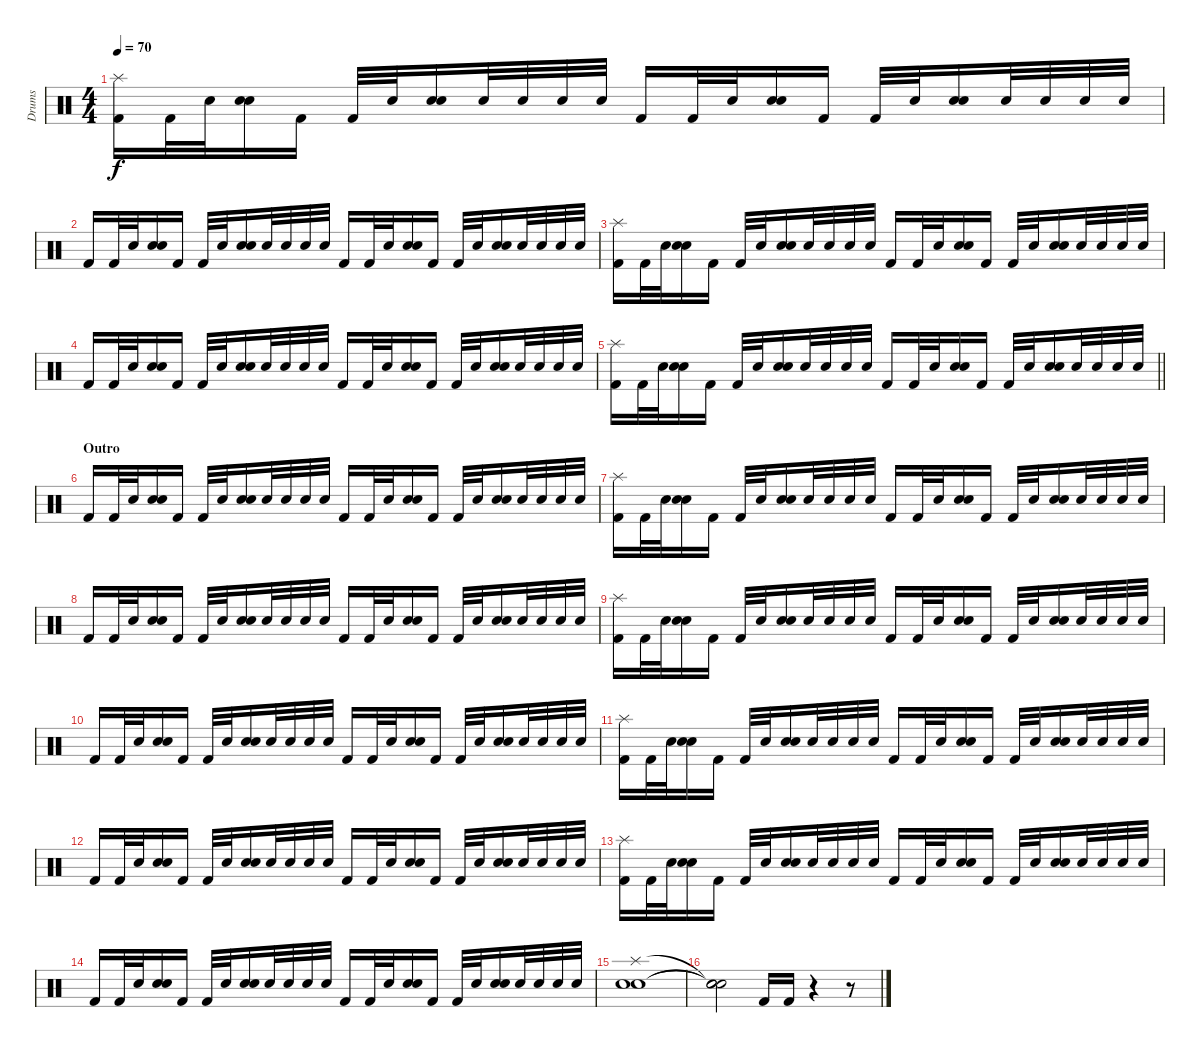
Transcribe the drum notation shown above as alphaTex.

\track ("Drums" "Drums") {instrument percussion}
\staff {score}
\articulation defaults
\ts (4 4)
\tempo 70
\clef neutral
\ks c
("Splash (hit)" "Kick (hit) 2").16{dy f} "Kick (hit) 2".32 "Snare (hit) 2".32 ("Snare (hit) 2" "Electric Snare (hit)").16 "Kick (hit) 2".16 "Kick (hit) 2".32 "Snare (hit) 2".32 ("Snare (hit) 2" "Electric Snare (hit)").16 "Snare (hit) 2".32 "Snare (hit) 2".32 "Snare (hit) 2".32 "Snare (hit) 2".32 "Kick (hit) 2".16 "Kick (hit) 2".32 "Snare (hit) 2".32 ("Snare (hit) 2" "Electric Snare (hit)").16 "Kick (hit) 2".16 "Kick (hit) 2".32 "Snare (hit) 2".32 ("Snare (hit) 2" "Electric Snare (hit)").16 "Snare (hit) 2".32 "Snare (hit) 2".32 "Snare (hit) 2".32 "Snare (hit) 2".32 |
"Kick (hit) 2".16 "Kick (hit) 2".32 "Snare (hit) 2".32 ("Snare (hit) 2" "Electric Snare (hit)").16 "Kick (hit) 2".16 "Kick (hit) 2".32 "Snare (hit) 2".32 ("Snare (hit) 2" "Electric Snare (hit)").16 "Snare (hit) 2".32 "Snare (hit) 2".32 "Snare (hit) 2".32 "Snare (hit) 2".32 "Kick (hit) 2".16 "Kick (hit) 2".32 "Snare (hit) 2".32 ("Snare (hit) 2" "Electric Snare (hit)").16 "Kick (hit) 2".16 "Kick (hit) 2".32 "Snare (hit) 2".32 ("Snare (hit) 2" "Electric Snare (hit)").16 "Snare (hit) 2".32 "Snare (hit) 2".32 "Snare (hit) 2".32 "Snare (hit) 2".32 |
("Splash (hit)" "Kick (hit) 2").16 "Kick (hit) 2".32 "Snare (hit) 2".32 ("Snare (hit) 2" "Electric Snare (hit)").16 "Kick (hit) 2".16 "Kick (hit) 2".32 "Snare (hit) 2".32 ("Snare (hit) 2" "Electric Snare (hit)").16 "Snare (hit) 2".32 "Snare (hit) 2".32 "Snare (hit) 2".32 "Snare (hit) 2".32 "Kick (hit) 2".16 "Kick (hit) 2".32 "Snare (hit) 2".32 ("Snare (hit) 2" "Electric Snare (hit)").16 "Kick (hit) 2".16 "Kick (hit) 2".32 "Snare (hit) 2".32 ("Snare (hit) 2" "Electric Snare (hit)").16 "Snare (hit) 2".32 "Snare (hit) 2".32 "Snare (hit) 2".32 "Snare (hit) 2".32 |
"Kick (hit) 2".16 "Kick (hit) 2".32 "Snare (hit) 2".32 ("Snare (hit) 2" "Electric Snare (hit)").16 "Kick (hit) 2".16 "Kick (hit) 2".32 "Snare (hit) 2".32 ("Snare (hit) 2" "Electric Snare (hit)").16 "Snare (hit) 2".32 "Snare (hit) 2".32 "Snare (hit) 2".32 "Snare (hit) 2".32 "Kick (hit) 2".16 "Kick (hit) 2".32 "Snare (hit) 2".32 ("Snare (hit) 2" "Electric Snare (hit)").16 "Kick (hit) 2".16 "Kick (hit) 2".32 "Snare (hit) 2".32 ("Snare (hit) 2" "Electric Snare (hit)").16 "Snare (hit) 2".32 "Snare (hit) 2".32 "Snare (hit) 2".32 "Snare (hit) 2".32 |
\barLineRight lightlight
("Splash (hit)" "Kick (hit) 2").16 "Kick (hit) 2".32 "Snare (hit) 2".32 ("Snare (hit) 2" "Electric Snare (hit)").16 "Kick (hit) 2".16 "Kick (hit) 2".32 "Snare (hit) 2".32 ("Snare (hit) 2" "Electric Snare (hit)").16 "Snare (hit) 2".32 "Snare (hit) 2".32 "Snare (hit) 2".32 "Snare (hit) 2".32 "Kick (hit) 2".16 "Kick (hit) 2".32 "Snare (hit) 2".32 ("Snare (hit) 2" "Electric Snare (hit)").16 "Kick (hit) 2".16 "Kick (hit) 2".32 "Snare (hit) 2".32 ("Snare (hit) 2" "Electric Snare (hit)").16 "Snare (hit) 2".32 "Snare (hit) 2".32 "Snare (hit) 2".32 "Snare (hit) 2".32 |
\section ("" "Outro")
"Kick (hit) 2".16 "Kick (hit) 2".32 "Snare (hit) 2".32 ("Snare (hit) 2" "Electric Snare (hit)").16 "Kick (hit) 2".16 "Kick (hit) 2".32 "Snare (hit) 2".32 ("Snare (hit) 2" "Electric Snare (hit)").16 "Snare (hit) 2".32 "Snare (hit) 2".32 "Snare (hit) 2".32 "Snare (hit) 2".32 "Kick (hit) 2".16 "Kick (hit) 2".32 "Snare (hit) 2".32 ("Snare (hit) 2" "Electric Snare (hit)").16 "Kick (hit) 2".16 "Kick (hit) 2".32 "Snare (hit) 2".32 ("Snare (hit) 2" "Electric Snare (hit)").16 "Snare (hit) 2".32 "Snare (hit) 2".32 "Snare (hit) 2".32 "Snare (hit) 2".32 |
("Splash (hit)" "Kick (hit) 2").16 "Kick (hit) 2".32 "Snare (hit) 2".32 ("Snare (hit) 2" "Electric Snare (hit)").16 "Kick (hit) 2".16 "Kick (hit) 2".32 "Snare (hit) 2".32 ("Snare (hit) 2" "Electric Snare (hit)").16 "Snare (hit) 2".32 "Snare (hit) 2".32 "Snare (hit) 2".32 "Snare (hit) 2".32 "Kick (hit) 2".16 "Kick (hit) 2".32 "Snare (hit) 2".32 ("Snare (hit) 2" "Electric Snare (hit)").16 "Kick (hit) 2".16 "Kick (hit) 2".32 "Snare (hit) 2".32 ("Snare (hit) 2" "Electric Snare (hit)").16 "Snare (hit) 2".32 "Snare (hit) 2".32 "Snare (hit) 2".32 "Snare (hit) 2".32 |
"Kick (hit) 2".16 "Kick (hit) 2".32 "Snare (hit) 2".32 ("Snare (hit) 2" "Electric Snare (hit)").16 "Kick (hit) 2".16 "Kick (hit) 2".32 "Snare (hit) 2".32 ("Snare (hit) 2" "Electric Snare (hit)").16 "Snare (hit) 2".32 "Snare (hit) 2".32 "Snare (hit) 2".32 "Snare (hit) 2".32 "Kick (hit) 2".16 "Kick (hit) 2".32 "Snare (hit) 2".32 ("Snare (hit) 2" "Electric Snare (hit)").16 "Kick (hit) 2".16 "Kick (hit) 2".32 "Snare (hit) 2".32 ("Snare (hit) 2" "Electric Snare (hit)").16 "Snare (hit) 2".32 "Snare (hit) 2".32 "Snare (hit) 2".32 "Snare (hit) 2".32 |
("Splash (hit)" "Kick (hit) 2").16 "Kick (hit) 2".32 "Snare (hit) 2".32 ("Snare (hit) 2" "Electric Snare (hit)").16 "Kick (hit) 2".16 "Kick (hit) 2".32 "Snare (hit) 2".32 ("Snare (hit) 2" "Electric Snare (hit)").16 "Snare (hit) 2".32 "Snare (hit) 2".32 "Snare (hit) 2".32 "Snare (hit) 2".32 "Kick (hit) 2".16 "Kick (hit) 2".32 "Snare (hit) 2".32 ("Snare (hit) 2" "Electric Snare (hit)").16 "Kick (hit) 2".16 "Kick (hit) 2".32 "Snare (hit) 2".32 ("Snare (hit) 2" "Electric Snare (hit)").16 "Snare (hit) 2".32 "Snare (hit) 2".32 "Snare (hit) 2".32 "Snare (hit) 2".32 |
"Kick (hit) 2".16 "Kick (hit) 2".32 "Snare (hit) 2".32 ("Snare (hit) 2" "Electric Snare (hit)").16 "Kick (hit) 2".16 "Kick (hit) 2".32 "Snare (hit) 2".32 ("Snare (hit) 2" "Electric Snare (hit)").16 "Snare (hit) 2".32 "Snare (hit) 2".32 "Snare (hit) 2".32 "Snare (hit) 2".32 "Kick (hit) 2".16 "Kick (hit) 2".32 "Snare (hit) 2".32 ("Snare (hit) 2" "Electric Snare (hit)").16 "Kick (hit) 2".16 "Kick (hit) 2".32 "Snare (hit) 2".32 ("Snare (hit) 2" "Electric Snare (hit)").16 "Snare (hit) 2".32 "Snare (hit) 2".32 "Snare (hit) 2".32 "Snare (hit) 2".32 |
("Splash (hit)" "Kick (hit) 2").16 "Kick (hit) 2".32 "Snare (hit) 2".32 ("Snare (hit) 2" "Electric Snare (hit)").16 "Kick (hit) 2".16 "Kick (hit) 2".32 "Snare (hit) 2".32 ("Snare (hit) 2" "Electric Snare (hit)").16 "Snare (hit) 2".32 "Snare (hit) 2".32 "Snare (hit) 2".32 "Snare (hit) 2".32 "Kick (hit) 2".16 "Kick (hit) 2".32 "Snare (hit) 2".32 ("Snare (hit) 2" "Electric Snare (hit)").16 "Kick (hit) 2".16 "Kick (hit) 2".32 "Snare (hit) 2".32 ("Snare (hit) 2" "Electric Snare (hit)").16 "Snare (hit) 2".32 "Snare (hit) 2".32 "Snare (hit) 2".32 "Snare (hit) 2".32 |
"Kick (hit) 2".16 "Kick (hit) 2".32 "Snare (hit) 2".32 ("Snare (hit) 2" "Electric Snare (hit)").16 "Kick (hit) 2".16 "Kick (hit) 2".32 "Snare (hit) 2".32 ("Snare (hit) 2" "Electric Snare (hit)").16 "Snare (hit) 2".32 "Snare (hit) 2".32 "Snare (hit) 2".32 "Snare (hit) 2".32 "Kick (hit) 2".16 "Kick (hit) 2".32 "Snare (hit) 2".32 ("Snare (hit) 2" "Electric Snare (hit)").16 "Kick (hit) 2".16 "Kick (hit) 2".32 "Snare (hit) 2".32 ("Snare (hit) 2" "Electric Snare (hit)").16 "Snare (hit) 2".32 "Snare (hit) 2".32 "Snare (hit) 2".32 "Snare (hit) 2".32 |
("Splash (hit)" "Kick (hit) 2").16 "Kick (hit) 2".32 "Snare (hit) 2".32 ("Snare (hit) 2" "Electric Snare (hit)").16 "Kick (hit) 2".16 "Kick (hit) 2".32 "Snare (hit) 2".32 ("Snare (hit) 2" "Electric Snare (hit)").16 "Snare (hit) 2".32 "Snare (hit) 2".32 "Snare (hit) 2".32 "Snare (hit) 2".32 "Kick (hit) 2".16 "Kick (hit) 2".32 "Snare (hit) 2".32 ("Snare (hit) 2" "Electric Snare (hit)").16 "Kick (hit) 2".16 "Kick (hit) 2".32 "Snare (hit) 2".32 ("Snare (hit) 2" "Electric Snare (hit)").16 "Snare (hit) 2".32 "Snare (hit) 2".32 "Snare (hit) 2".32 "Snare (hit) 2".32 |
"Kick (hit) 2".16 "Kick (hit) 2".32 "Snare (hit) 2".32 ("Snare (hit) 2" "Electric Snare (hit)").16 "Kick (hit) 2".16 "Kick (hit) 2".32 "Snare (hit) 2".32 ("Snare (hit) 2" "Electric Snare (hit)").16 "Snare (hit) 2".32 "Snare (hit) 2".32 "Snare (hit) 2".32 "Snare (hit) 2".32 "Kick (hit) 2".16 "Kick (hit) 2".32 "Snare (hit) 2".32 ("Snare (hit) 2" "Electric Snare (hit)").16 "Kick (hit) 2".16 "Kick (hit) 2".32 "Snare (hit) 2".32 ("Snare (hit) 2" "Electric Snare (hit)").16 "Snare (hit) 2".32 "Snare (hit) 2".32 "Snare (hit) 2".32 "Snare (hit) 2".32 |
("Splash (hit)" "Snare (hit) 2" "Electric Snare (hit)").1 |
("Snare (hit)"{t} "Snare (hit)"{t} "Snare (hit)"{t}).2 "Kick (hit) 2".16 "Kick (hit) 2".16 r.4 r.8
